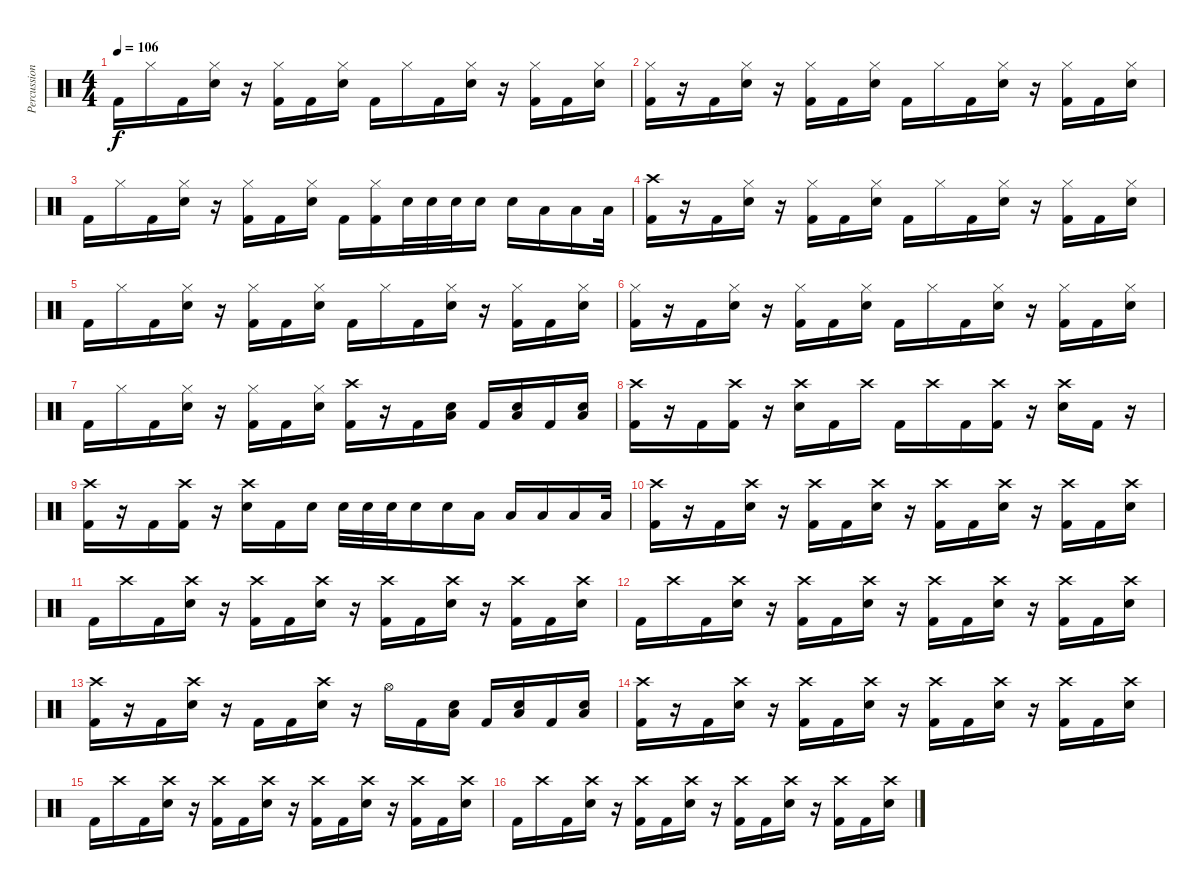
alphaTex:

\track ("Percussion" "Percussion") {instrument percussion}
\staff {score}
\articulation defaults
\ts (4 4)
\tempo 106
\clef neutral
\ks c "Kick (hit) 2".16{dy f} "Hi-Hat (closed)".16 "Kick (hit) 2".16
("Hi-Hat (closed)" "Snare (hit) 2").16 r.16 ("Hi-Hat (closed)" "Kick (hit) 2").16 "Kick (hit) 2".16 ("Hi-Hat (closed)" "Snare (hit) 2").16 "Kick (hit) 2".16 "Hi-Hat (closed)".16 "Kick (hit) 2".16 ("Hi-Hat (closed)" "Snare (hit) 2").16 r.16 ("Hi-Hat (closed)" "Kick (hit) 2").16 "Kick (hit) 2".16 ("Hi-Hat (closed)" "Snare (hit) 2").16 |
("Hi-Hat (closed)" "Kick (hit) 2").16 r.16 "Kick (hit) 2".16 ("Hi-Hat (closed)" "Snare (hit) 2").16 r.16 ("Hi-Hat (closed)" "Kick (hit) 2").16 "Kick (hit) 2".16 ("Hi-Hat (closed)" "Snare (hit) 2").16 "Kick (hit) 2".16 "Hi-Hat (closed)".16 "Kick (hit) 2".16 ("Hi-Hat (closed)" "Snare (hit) 2").16 r.16 ("Hi-Hat (closed)" "Kick (hit) 2").16 "Kick (hit) 2".16 ("Hi-Hat (closed)" "Snare (hit) 2").16 |
"Kick (hit) 2".16 "Hi-Hat (closed)".16 "Kick (hit) 2".16 ("Hi-Hat (closed)" "Snare (hit) 2").16 r.16 ("Hi-Hat (closed)" "Kick (hit) 2").16 "Kick (hit) 2".16 ("Hi-Hat (closed)" "Snare (hit) 2").16 "Kick (hit) 2".16 ("Hi-Hat (closed)" "Kick (hit) 2").16 "Snare (hit) 2".32 "Snare (hit) 2".32 "Snare (hit) 2".32 "Snare (hit) 2".16 "Snare (hit) 2".16 "Low Tom (hit)".16 "Low Tom (hit)".16 "Low Tom (hit)".32 |
("Crash high (hit)" "Kick (hit) 2").16 r.16 "Kick (hit) 2".16 ("Hi-Hat (closed)" "Snare (hit) 2").16 r.16 ("Hi-Hat (closed)" "Kick (hit) 2").16 "Kick (hit) 2".16 ("Hi-Hat (closed)" "Snare (hit) 2").16 "Kick (hit) 2".16 "Hi-Hat (closed)".16 "Kick (hit) 2".16 ("Hi-Hat (closed)" "Snare (hit) 2").16 r.16 ("Hi-Hat (closed)" "Kick (hit) 2").16 "Kick (hit) 2".16 ("Hi-Hat (closed)" "Snare (hit) 2").16 |
"Kick (hit) 2".16 "Hi-Hat (closed)".16 "Kick (hit) 2".16 ("Hi-Hat (closed)" "Snare (hit) 2").16 r.16 ("Hi-Hat (closed)" "Kick (hit) 2").16 "Kick (hit) 2".16 ("Hi-Hat (closed)" "Snare (hit) 2").16 "Kick (hit) 2".16 "Hi-Hat (closed)".16 "Kick (hit) 2".16 ("Hi-Hat (closed)" "Snare (hit) 2").16 r.16 ("Hi-Hat (closed)" "Kick (hit) 2").16 "Kick (hit) 2".16 ("Hi-Hat (closed)" "Snare (hit) 2").16 |
("Hi-Hat (closed)" "Kick (hit) 2").16 r.16 "Kick (hit) 2".16 ("Hi-Hat (closed)" "Snare (hit) 2").16 r.16 ("Hi-Hat (closed)" "Kick (hit) 2").16 "Kick (hit) 2".16 ("Hi-Hat (closed)" "Snare (hit) 2").16 "Kick (hit) 2".16 "Hi-Hat (closed)".16 "Kick (hit) 2".16 ("Hi-Hat (closed)" "Snare (hit) 2").16 r.16 ("Hi-Hat (closed)" "Kick (hit) 2").16 "Kick (hit) 2".16 ("Hi-Hat (closed)" "Snare (hit) 2").16 |
"Kick (hit) 2".16 "Hi-Hat (closed)".16 "Kick (hit) 2".16 ("Hi-Hat (closed)" "Snare (hit) 2").16 r.16 ("Hi-Hat (closed)" "Kick (hit) 2").16 "Kick (hit) 2".16 ("Hi-Hat (closed)" "Snare (hit) 2").16 ("Crash high (hit)" "Kick (hit) 2").16 r.16 "Kick (hit) 2".16 ("Low Floor Tom (hit)" "Snare (hit) 2").16 "Kick (hit) 2".16 ("Low Floor Tom (hit)" "Snare (hit) 2").16 "Kick (hit) 2".16 ("Low Floor Tom (hit)" "Snare (hit) 2").16 |
("Crash high (hit)" "Kick (hit) 2").16 r.16 "Kick (hit) 2".16 ("Crash high (hit)" "Kick (hit) 2").16 r.16 ("Crash high (hit)" "Snare (hit) 2").16 "Kick (hit) 2".16 "Crash high (hit)".16 "Kick (hit) 2".16 "Crash high (hit)".16 "Kick (hit) 2".16 ("Crash high (hit)" "Kick (hit) 2").16 r.16 ("Crash high (hit)" "Snare (hit) 2").16 "Kick (hit) 2".16 r.16 |
("Crash high (hit)" "Kick (hit) 2").16 r.16 "Kick (hit) 2".16 ("Crash high (hit)" "Kick (hit) 2").16 r.16 ("Crash high (hit)" "Snare (hit) 2").16 "Kick (hit) 2".16 "Snare (hit) 2".16 "Snare (hit) 2".32 "Snare (hit) 2".32 "Snare (hit) 2".32 "Snare (hit) 2".16 "Snare (hit) 2".16 "Low Tom (hit)".16 "Low Tom (hit)".16 "Low Tom (hit)".16 "Low Tom (hit)".16 "Low Tom (hit)".32 |
("Crash high (hit)" "Kick (hit) 2").16 r.16 "Kick (hit) 2".16 ("Crash high (hit)" "Snare (hit) 2").16 r.16 ("Crash high (hit)" "Kick (hit) 2").16 "Kick (hit) 2".16 ("Crash high (hit)" "Snare (hit) 2").16 r.16 ("Crash high (hit)" "Kick (hit) 2").16 "Kick (hit) 2".16 ("Crash high (hit)" "Snare (hit) 2").16 r.16 ("Crash high (hit)" "Kick (hit) 2").16 "Kick (hit) 2".16 ("Crash high (hit)" "Snare (hit) 2").16 |
"Kick (hit) 2".16 "Crash high (hit)".16 "Kick (hit) 2".16 ("Crash high (hit)" "Snare (hit) 2").16 r.16 ("Crash high (hit)" "Kick (hit) 2").16 "Kick (hit) 2".16 ("Crash high (hit)" "Snare (hit) 2").16 r.16 ("Crash high (hit)" "Kick (hit) 2").16 "Kick (hit) 2".16 ("Crash high (hit)" "Snare (hit) 2").16 r.16 ("Crash high (hit)" "Kick (hit) 2").16 "Kick (hit) 2".16 ("Crash high (hit)" "Snare (hit) 2").16 |
"Kick (hit) 2".16 "Crash high (hit)".16 "Kick (hit) 2".16 ("Crash high (hit)" "Snare (hit) 2").16 r.16 ("Crash high (hit)" "Kick (hit) 2").16 "Kick (hit) 2".16 ("Crash high (hit)" "Snare (hit) 2").16 r.16 ("Crash high (hit)" "Kick (hit) 2").16 "Kick (hit) 2".16 ("Crash high (hit)" "Snare (hit) 2").16 r.16 ("Crash high (hit)" "Kick (hit) 2").16 "Kick (hit) 2".16 ("Crash high (hit)" "Snare (hit) 2").16 |
("Crash high (hit)" "Kick (hit) 2").16 r.16 "Kick (hit) 2".16 ("Crash high (hit)" "Snare (hit) 2").16 r.16 "Kick (hit) 2".16 "Kick (hit) 2".16 ("Crash high (hit)" "Snare (hit) 2").16 r.16 "Hi-Hat (open)".16 "Kick (hit) 2".16 ("Low Floor Tom (hit)" "Snare (hit) 2").16 "Kick (hit) 2".16 ("Low Floor Tom (hit)" "Snare (hit) 2").16 "Kick (hit) 2".16 ("Low Floor Tom (hit)" "Snare (hit) 2").16 |
("Crash high (hit)" "Kick (hit) 2").16 r.16 "Kick (hit) 2".16 ("Crash high (hit)" "Snare (hit) 2").16 r.16 ("Crash high (hit)" "Kick (hit) 2").16 "Kick (hit) 2".16 ("Crash high (hit)" "Snare (hit) 2").16 r.16 ("Crash high (hit)" "Kick (hit) 2").16 "Kick (hit) 2".16 ("Crash high (hit)" "Snare (hit) 2").16 r.16 ("Crash high (hit)" "Kick (hit) 2").16 "Kick (hit) 2".16 ("Crash high (hit)" "Snare (hit) 2").16 |
"Kick (hit) 2".16 "Crash high (hit)".16 "Kick (hit) 2".16 ("Crash high (hit)" "Snare (hit) 2").16 r.16 ("Crash high (hit)" "Kick (hit) 2").16 "Kick (hit) 2".16 ("Crash high (hit)" "Snare (hit) 2").16 r.16 ("Crash high (hit)" "Kick (hit) 2").16 "Kick (hit) 2".16 ("Crash high (hit)" "Snare (hit) 2").16 r.16 ("Crash high (hit)" "Kick (hit) 2").16 "Kick (hit) 2".16 ("Crash high (hit)" "Snare (hit) 2").16 |
"Kick (hit) 2".16 "Crash high (hit)".16 "Kick (hit) 2".16 ("Crash high (hit)" "Snare (hit) 2").16 r.16 ("Crash high (hit)" "Kick (hit) 2").16 "Kick (hit) 2".16 ("Crash high (hit)" "Snare (hit) 2").16 r.16 ("Crash high (hit)" "Kick (hit) 2").16 "Kick (hit) 2".16 ("Crash high (hit)" "Snare (hit) 2").16 r.16 ("Crash high (hit)" "Kick (hit) 2").16 "Kick (hit) 2".16 ("Crash high (hit)" "Snare (hit) 2").16
